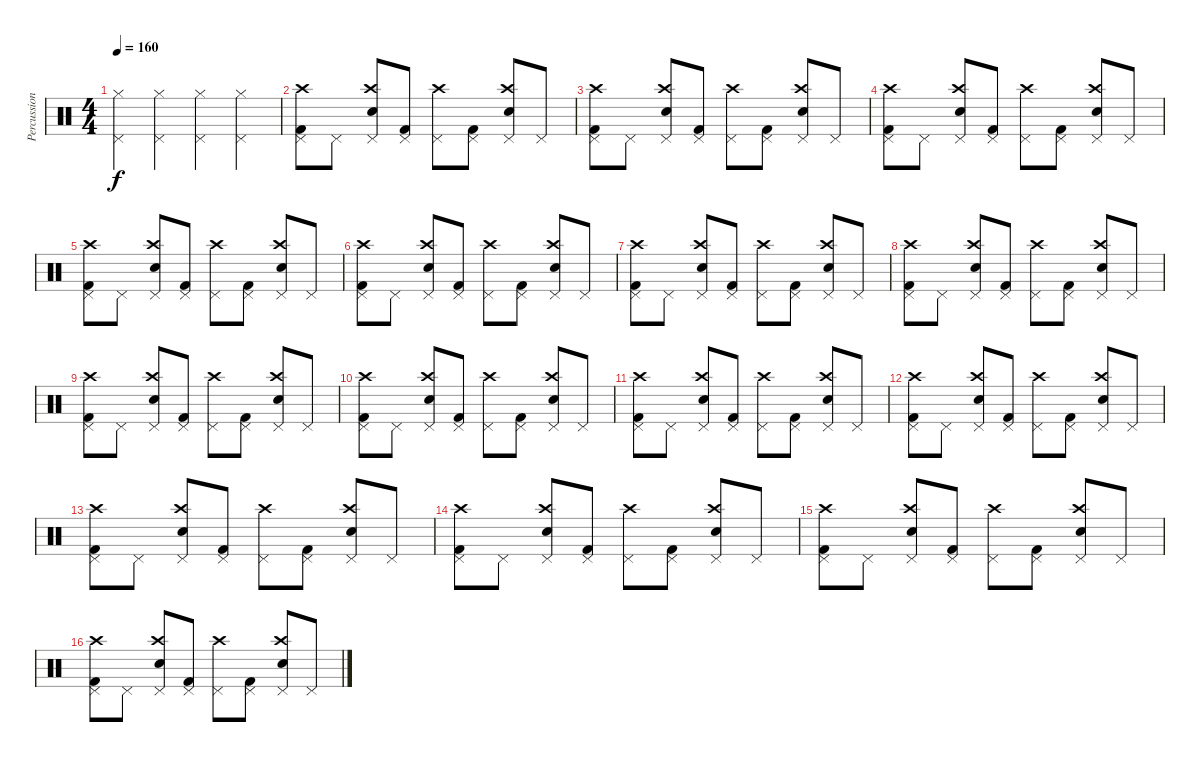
\track ("Percussion" "Percussion") {instrument percussion}
\staff {score}
\articulation defaults
\ts (4 4)
\tempo 160
\clef neutral
\ks c
("Hi-Hat (closed)" "Pedal Hi-Hat (hit)").4{dy f} ("Hi-Hat (closed)" "Pedal Hi-Hat (hit)").4 ("Hi-Hat (closed)" "Pedal Hi-Hat (hit)").4 ("Hi-Hat (closed)" "Pedal Hi-Hat (hit)").4 |
("Pedal Hi-Hat (hit)" "Kick (hit) 2" "Crash high (hit)").8 "Pedal Hi-Hat (hit)".8 ("Pedal Hi-Hat (hit)" "Electric Snare (hit)" "Crash high (hit)").8 ("Pedal Hi-Hat (hit)" "Kick (hit) 2").8 ("Pedal Hi-Hat (hit)" "Crash high (hit)").8 ("Pedal Hi-Hat (hit)" "Kick (hit) 2").8 ("Pedal Hi-Hat (hit)" "Electric Snare (hit)" "Crash high (hit)").8 "Pedal Hi-Hat (hit)".8 |
("Pedal Hi-Hat (hit)" "Kick (hit) 2" "Crash high (hit)").8 "Pedal Hi-Hat (hit)".8 ("Pedal Hi-Hat (hit)" "Electric Snare (hit)" "Crash high (hit)").8 ("Pedal Hi-Hat (hit)" "Kick (hit) 2").8 ("Pedal Hi-Hat (hit)" "Crash high (hit)").8 ("Pedal Hi-Hat (hit)" "Kick (hit) 2").8 ("Pedal Hi-Hat (hit)" "Electric Snare (hit)" "Crash high (hit)").8 "Pedal Hi-Hat (hit)".8 |
("Pedal Hi-Hat (hit)" "Kick (hit) 2" "Crash high (hit)").8 "Pedal Hi-Hat (hit)".8 ("Pedal Hi-Hat (hit)" "Electric Snare (hit)" "Crash high (hit)").8 ("Pedal Hi-Hat (hit)" "Kick (hit) 2").8 ("Pedal Hi-Hat (hit)" "Crash high (hit)").8 ("Pedal Hi-Hat (hit)" "Kick (hit) 2").8 ("Pedal Hi-Hat (hit)" "Electric Snare (hit)" "Crash high (hit)").8 "Pedal Hi-Hat (hit)".8 |
("Pedal Hi-Hat (hit)" "Kick (hit) 2" "Crash high (hit)").8 "Pedal Hi-Hat (hit)".8 ("Pedal Hi-Hat (hit)" "Electric Snare (hit)" "Crash high (hit)").8 ("Pedal Hi-Hat (hit)" "Kick (hit) 2").8 ("Pedal Hi-Hat (hit)" "Crash high (hit)").8 ("Pedal Hi-Hat (hit)" "Kick (hit) 2").8 ("Pedal Hi-Hat (hit)" "Electric Snare (hit)" "Crash high (hit)").8 "Pedal Hi-Hat (hit)".8 |
("Pedal Hi-Hat (hit)" "Kick (hit) 2" "Crash high (hit)").8 "Pedal Hi-Hat (hit)".8 ("Pedal Hi-Hat (hit)" "Electric Snare (hit)" "Crash high (hit)").8 ("Pedal Hi-Hat (hit)" "Kick (hit) 2").8 ("Pedal Hi-Hat (hit)" "Crash high (hit)").8 ("Pedal Hi-Hat (hit)" "Kick (hit) 2").8 ("Pedal Hi-Hat (hit)" "Electric Snare (hit)" "Crash high (hit)").8 "Pedal Hi-Hat (hit)".8 |
("Pedal Hi-Hat (hit)" "Kick (hit) 2" "Crash high (hit)").8 "Pedal Hi-Hat (hit)".8 ("Pedal Hi-Hat (hit)" "Electric Snare (hit)" "Crash high (hit)").8 ("Pedal Hi-Hat (hit)" "Kick (hit) 2").8 ("Pedal Hi-Hat (hit)" "Crash high (hit)").8 ("Pedal Hi-Hat (hit)" "Kick (hit) 2").8 ("Pedal Hi-Hat (hit)" "Electric Snare (hit)" "Crash high (hit)").8 "Pedal Hi-Hat (hit)".8 |
("Pedal Hi-Hat (hit)" "Kick (hit) 2" "Crash high (hit)").8 "Pedal Hi-Hat (hit)".8 ("Pedal Hi-Hat (hit)" "Electric Snare (hit)" "Crash high (hit)").8 ("Pedal Hi-Hat (hit)" "Kick (hit) 2").8 ("Pedal Hi-Hat (hit)" "Crash high (hit)").8 ("Pedal Hi-Hat (hit)" "Kick (hit) 2").8 ("Pedal Hi-Hat (hit)" "Electric Snare (hit)" "Crash high (hit)").8 "Pedal Hi-Hat (hit)".8 |
("Pedal Hi-Hat (hit)" "Kick (hit) 2" "Crash high (hit)").8 "Pedal Hi-Hat (hit)".8 ("Pedal Hi-Hat (hit)" "Electric Snare (hit)" "Crash high (hit)").8 ("Pedal Hi-Hat (hit)" "Kick (hit) 2").8 ("Pedal Hi-Hat (hit)" "Crash high (hit)").8 ("Pedal Hi-Hat (hit)" "Kick (hit) 2").8 ("Pedal Hi-Hat (hit)" "Electric Snare (hit)" "Crash high (hit)").8 "Pedal Hi-Hat (hit)".8 |
("Pedal Hi-Hat (hit)" "Kick (hit) 2" "Crash high (hit)").8 "Pedal Hi-Hat (hit)".8 ("Pedal Hi-Hat (hit)" "Electric Snare (hit)" "Crash high (hit)").8 ("Pedal Hi-Hat (hit)" "Kick (hit) 2").8 ("Pedal Hi-Hat (hit)" "Crash high (hit)").8 ("Pedal Hi-Hat (hit)" "Kick (hit) 2").8 ("Pedal Hi-Hat (hit)" "Electric Snare (hit)" "Crash high (hit)").8 "Pedal Hi-Hat (hit)".8 |
("Pedal Hi-Hat (hit)" "Kick (hit) 2" "Crash high (hit)").8 "Pedal Hi-Hat (hit)".8 ("Pedal Hi-Hat (hit)" "Electric Snare (hit)" "Crash high (hit)").8 ("Pedal Hi-Hat (hit)" "Kick (hit) 2").8 ("Pedal Hi-Hat (hit)" "Crash high (hit)").8 ("Pedal Hi-Hat (hit)" "Kick (hit) 2").8 ("Pedal Hi-Hat (hit)" "Electric Snare (hit)" "Crash high (hit)").8 "Pedal Hi-Hat (hit)".8 |
("Pedal Hi-Hat (hit)" "Kick (hit) 2" "Crash high (hit)").8 "Pedal Hi-Hat (hit)".8 ("Pedal Hi-Hat (hit)" "Electric Snare (hit)" "Crash high (hit)").8 ("Pedal Hi-Hat (hit)" "Kick (hit) 2").8 ("Pedal Hi-Hat (hit)" "Crash high (hit)").8 ("Pedal Hi-Hat (hit)" "Kick (hit) 2").8 ("Pedal Hi-Hat (hit)" "Electric Snare (hit)" "Crash high (hit)").8 "Pedal Hi-Hat (hit)".8 |
("Pedal Hi-Hat (hit)" "Kick (hit) 2" "Crash high (hit)").8 "Pedal Hi-Hat (hit)".8 ("Pedal Hi-Hat (hit)" "Electric Snare (hit)" "Crash high (hit)").8 ("Pedal Hi-Hat (hit)" "Kick (hit) 2").8 ("Pedal Hi-Hat (hit)" "Crash high (hit)").8 ("Pedal Hi-Hat (hit)" "Kick (hit) 2").8 ("Pedal Hi-Hat (hit)" "Electric Snare (hit)" "Crash high (hit)").8 "Pedal Hi-Hat (hit)".8 |
("Pedal Hi-Hat (hit)" "Kick (hit) 2" "Crash high (hit)").8 "Pedal Hi-Hat (hit)".8 ("Pedal Hi-Hat (hit)" "Electric Snare (hit)" "Crash high (hit)").8 ("Pedal Hi-Hat (hit)" "Kick (hit) 2").8 ("Pedal Hi-Hat (hit)" "Crash high (hit)").8 ("Pedal Hi-Hat (hit)" "Kick (hit) 2").8 ("Pedal Hi-Hat (hit)" "Electric Snare (hit)" "Crash high (hit)").8 "Pedal Hi-Hat (hit)".8 |
("Pedal Hi-Hat (hit)" "Kick (hit) 2" "Crash high (hit)").8 "Pedal Hi-Hat (hit)".8 ("Pedal Hi-Hat (hit)" "Electric Snare (hit)" "Crash high (hit)").8 ("Pedal Hi-Hat (hit)" "Kick (hit) 2").8 ("Pedal Hi-Hat (hit)" "Crash high (hit)").8 ("Pedal Hi-Hat (hit)" "Kick (hit) 2").8 ("Pedal Hi-Hat (hit)" "Electric Snare (hit)" "Crash high (hit)").8 "Pedal Hi-Hat (hit)".8 |
("Pedal Hi-Hat (hit)" "Kick (hit) 2" "Crash high (hit)").8 "Pedal Hi-Hat (hit)".8 ("Pedal Hi-Hat (hit)" "Electric Snare (hit)" "Crash high (hit)").8 ("Pedal Hi-Hat (hit)" "Kick (hit) 2").8 ("Pedal Hi-Hat (hit)" "Crash high (hit)").8 ("Pedal Hi-Hat (hit)" "Kick (hit) 2").8 ("Pedal Hi-Hat (hit)" "Electric Snare (hit)" "Crash high (hit)").8 "Pedal Hi-Hat (hit)".8
